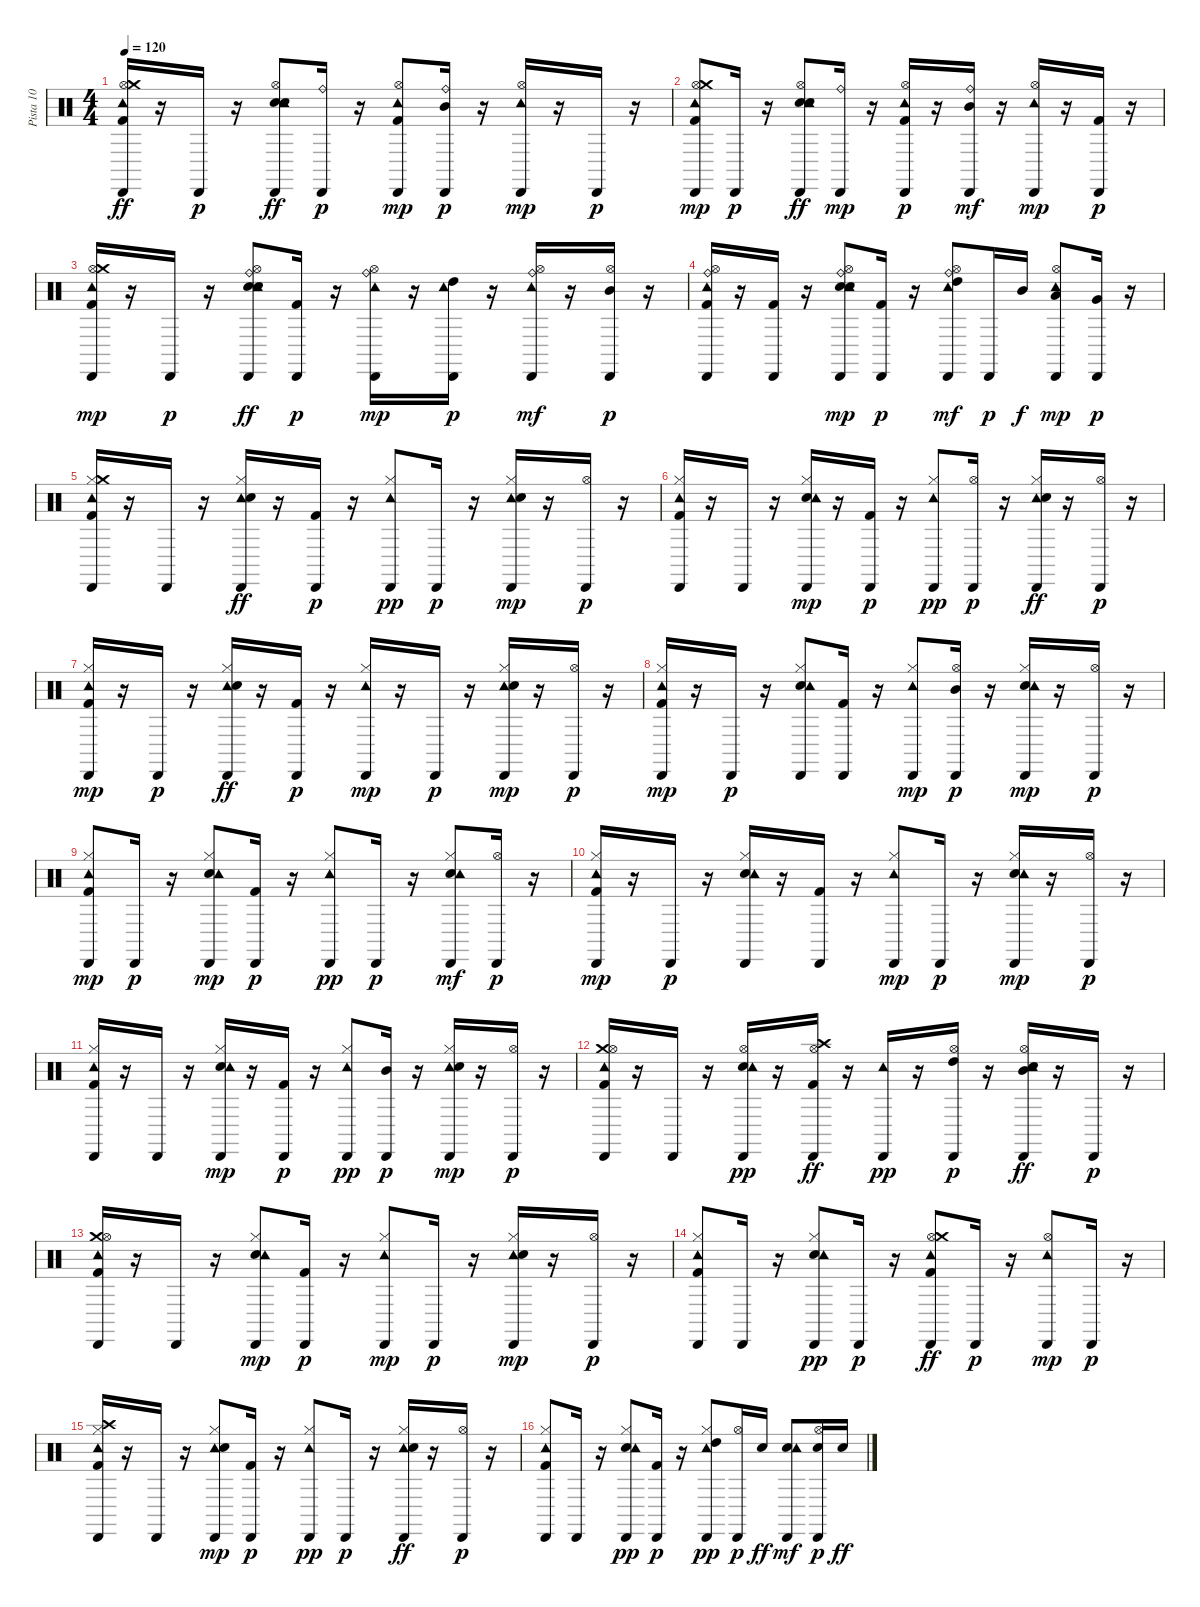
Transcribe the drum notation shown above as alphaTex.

\track ("Pista 10" "Pista 10") {instrument percussion}
\staff {score}
\articulation defaults
\ts (4 4)
\tempo 120
\clef neutral
\ks c
("Tambourine (hit)" "Cabasa (hit)" "Hi-Hat (open)" "Crash medium (hit)" "Kick (hit) 2").16{dy ff} r.16 "Cabasa (hit)".16{dy p} r.16 ("Electric Snare (hit)" "Tambourine (hit)" "Cabasa (hit)" "Electric Snare (hit)" "Hi-Hat (open)").8{dy ff} ("Ride (bell)" "Cabasa (hit)").16{dy p} r.16 ("Kick (hit) 2" "Cabasa (hit)" "Hi-Hat (open)" "Tambourine (hit)").8{dy mp} ("Mid Tom (hit)" "Ride (bell)" "Cabasa (hit)").16{dy p} r.16 ("Hi-Hat (open)" "Tambourine (hit)" "Cabasa (hit)").16{dy mp} r.16 "Cabasa (hit)".16{dy p} r.16 |
("Kick (hit) 2" "Hi-Hat (open)" "Crash medium (hit)" "Cabasa (hit)" "Tambourine (hit)").8{dy mp} "Cabasa (hit)".16{dy p} r.16 ("Electric Snare (hit)" "Hi-Hat (open)" "Tambourine (hit)" "Cabasa (hit)" "Electric Snare (hit)").8{dy ff} ("Cabasa (hit)" "Ride (bell)").16{dy mp} r.16 ("Kick (hit) 2" "Hi-Hat (open)" "Cabasa (hit)" "Tambourine (hit)").16{dy p} r.16 ("Cabasa (hit)" "Mid Tom (hit)" "Ride (bell)").16{dy mf} r.16 ("Hi-Hat (open)" "Cabasa (hit)" "Tambourine (hit)").16{dy mp} r.16 ("Kick (hit) 2" "Cabasa (hit)").16{dy p} r.16 |
("Kick (hit) 2" "Hi-Hat (open)" "Tambourine (hit)" "Crash medium (hit)" "Cabasa (hit)").16{dy mp} r.16 "Cabasa (hit)".16{dy p} r.16 ("Electric Snare (hit)" "Cabasa (hit)" "Hi-Hat (open)" "Ride (bell)" "Tambourine (hit)" "Electric Snare (hit)").8{dy ff} ("Kick (hit) 2" "Cabasa (hit)").16{dy p} r.16 ("Hi-Hat (open)" "Ride (bell)" "Cabasa (hit)" "Tambourine (hit)").16{dy mp} r.16 ("Cabasa (hit)" "High Tom (hit)" "Tambourine (hit)").16{dy p} r.16 ("Cabasa (hit)" "Hi-Hat (open)" "Ride (bell)" "Tambourine (hit)").16{dy mf} r.16 ("Hi-Hat (open)" "Mid Tom (hit)" "Cabasa (hit)").16{dy p} r.16 |
("Ride (bell)" "Cabasa (hit)" "Tambourine (hit)" "Hi-Hat (open)" "Kick (hit) 2").16 r.16 ("Cabasa (hit)" "Kick (hit) 2").16 r.16 ("Electric Snare (hit)" "Electric Snare (hit)" "Tambourine (hit)" "Hi-Hat (open)" "Ride (bell)" "Cabasa (hit)").8{dy mp} ("Cabasa (hit)" "Kick (hit) 2").16{dy p} r.16 ("Tambourine (hit)" "Cabasa (hit)" "High Tom (hit)" "Ride (bell)" "Hi-Hat (open)").8{dy mf} "Cabasa (hit)".16{dy p} "Mid Tom (hit)".16{dy f} ("Hi-Hat (open)" "Tambourine (hit)" "Low Tom (hit)" "Cabasa (hit)").8{dy mp} ("Very Low Tom (hit)" "Cabasa (hit)").16{dy p} r.16 |
("Kick (hit) 2" "Cabasa (hit)" "Hi-Hat (closed)" "Crash medium (hit)" "Tambourine (hit)").16 r.16 "Cabasa (hit)".16 r.16 ("Cabasa (hit)" "Tambourine (hit)" "Electric Snare (hit)" "Hi-Hat (closed)").16{dy ff} r.16 ("Kick (hit) 2" "Cabasa (hit)").16{dy p} r.16 ("Hi-Hat (closed)" "Cabasa (hit)" "Tambourine (hit)").8{dy pp} "Cabasa (hit)".16{dy p} r.16 ("Tambourine (hit)" "Electric Snare (hit)" "Hi-Hat (closed)" "Cabasa (hit)").16{dy mp} r.16 ("Cabasa (hit)" "Hi-Hat (open)").16{dy p} r.16 |
("Cabasa (hit)" "Kick (hit) 2" "Hi-Hat (closed)" "Tambourine (hit)").16 r.16 "Cabasa (hit)".16 r.16 ("Electric Snare (hit)" "Tambourine (hit)" "Hi-Hat (closed)" "Cabasa (hit)").16{dy mp} r.16 ("Cabasa (hit)" "Kick (hit) 2").16{dy p} r.16 ("Hi-Hat (closed)" "Cabasa (hit)" "Tambourine (hit)").8{dy pp} ("Hi-Hat (open)" "Cabasa (hit)").16{dy p} r.16 ("Hi-Hat (closed)" "Cabasa (hit)" "Tambourine (hit)" "Electric Snare (hit)").16{dy ff} r.16 ("Hi-Hat (open)" "Cabasa (hit)").16{dy p} r.16 |
("Tambourine (hit)" "Cabasa (hit)" "Kick (hit) 2" "Hi-Hat (closed)").16{dy mp} r.16 "Cabasa (hit)".16{dy p} r.16 ("Hi-Hat (closed)" "Cabasa (hit)" "Tambourine (hit)" "Electric Snare (hit)").16{dy ff} r.16 ("Kick (hit) 2" "Cabasa (hit)").16{dy p} r.16 ("Tambourine (hit)" "Cabasa (hit)" "Hi-Hat (closed)").16{dy mp} r.16 "Cabasa (hit)".16{dy p} r.16 ("Tambourine (hit)" "Electric Snare (hit)" "Hi-Hat (closed)" "Cabasa (hit)").16{dy mp} r.16 ("Hi-Hat (open)" "Cabasa (hit)").16{dy p} r.16 |
("Hi-Hat (closed)" "Tambourine (hit)" "Cabasa (hit)" "Kick (hit) 2").16{dy mp} r.16 "Cabasa (hit)".16{dy p} r.16 ("Electric Snare (hit)" "Hi-Hat (closed)" "Cabasa (hit)" "Tambourine (hit)").8 ("Cabasa (hit)" "Kick (hit) 2").16 r.16 ("Hi-Hat (closed)" "Tambourine (hit)" "Cabasa (hit)").8{dy mp} ("Hi-Hat (open)" "Mid Tom (hit)" "Cabasa (hit)").16{dy p} r.16 ("Electric Snare (hit)" "Hi-Hat (closed)" "Cabasa (hit)" "Tambourine (hit)").16{dy mp} r.16 ("Hi-Hat (open)" "Cabasa (hit)").16{dy p} r.16 |
("Kick (hit) 2" "Hi-Hat (closed)" "Tambourine (hit)" "Cabasa (hit)").8{dy mp} "Cabasa (hit)".16{dy p} r.16 ("Electric Snare (hit)" "Hi-Hat (closed)" "Tambourine (hit)" "Cabasa (hit)").8{dy mp} ("Kick (hit) 2" "Cabasa (hit)").16{dy p} r.16 ("Hi-Hat (closed)" "Cabasa (hit)" "Tambourine (hit)").8{dy pp} "Cabasa (hit)".16{dy p} r.16 ("Electric Snare (hit)" "Hi-Hat (closed)" "Cabasa (hit)" "Tambourine (hit)").8{dy mf} ("Cabasa (hit)" "Hi-Hat (open)").16{dy p} r.16 |
("Hi-Hat (closed)" "Kick (hit) 2" "Tambourine (hit)" "Cabasa (hit)").16{dy mp} r.16 "Cabasa (hit)".16{dy p} r.16 ("Cabasa (hit)" "Electric Snare (hit)" "Hi-Hat (closed)" "Tambourine (hit)").16 r.16 ("Kick (hit) 2" "Cabasa (hit)").16 r.16 ("Tambourine (hit)" "Hi-Hat (closed)" "Cabasa (hit)").8{dy mp} "Cabasa (hit)".16{dy p} r.16 ("Hi-Hat (closed)" "Electric Snare (hit)" "Tambourine (hit)" "Cabasa (hit)").16{dy mp} r.16 ("Cabasa (hit)" "Hi-Hat (open)").16{dy p} r.16 |
("Kick (hit) 2" "Hi-Hat (closed)" "Cabasa (hit)" "Tambourine (hit)").16 r.16 "Cabasa (hit)".16 r.16 ("Electric Snare (hit)" "Tambourine (hit)" "Hi-Hat (closed)" "Cabasa (hit)").16{dy mp} r.16 ("Cabasa (hit)" "Kick (hit) 2").16{dy p} r.16 ("Cabasa (hit)" "Hi-Hat (closed)" "Tambourine (hit)").8{dy pp} ("Cabasa (hit)" "Mid Tom (hit)").16{dy p} r.16 ("Tambourine (hit)" "Electric Snare (hit)" "Hi-Hat (closed)" "Cabasa (hit)").16{dy mp} r.16 ("Hi-Hat (open)" "Cabasa (hit)").16{dy p} r.16 |
("Crash medium (hit)" "Cabasa (hit)" "Tambourine (hit)" "Kick (hit) 2" "Hi-Hat (open)").16 r.16 "Cabasa (hit)".16 r.16 ("Electric Snare (hit)" "Cabasa (hit)" "Hi-Hat (open)" "Tambourine (hit)").16{dy pp} r.16 ("Kick (hit) 2" "Hi-Hat (open)" "Cabasa (hit)" "Crash high (hit)").16{dy ff} r.16 ("Cabasa (hit)" "Tambourine (hit)").16{dy pp} r.16 ("Hi-Hat (open)" "High Tom (hit)" "Cabasa (hit)").16{dy p} r.16 ("Hi-Hat (open)" "Mid Tom (hit)" "Cabasa (hit)" "Tambourine (hit)" "Electric Snare (hit)").16{dy ff} r.16 "Cabasa (hit)".16{dy p} r.16 |
("Crash medium (hit)" "Cabasa (hit)" "Kick (hit) 2" "Hi-Hat (open)" "Tambourine (hit)").16 r.16 "Cabasa (hit)".16 r.16 ("Electric Snare (hit)" "Hi-Hat (closed)" "Tambourine (hit)" "Cabasa (hit)").8{dy mp} ("Kick (hit) 2" "Cabasa (hit)").16{dy p} r.16 ("Hi-Hat (closed)" "Tambourine (hit)" "Cabasa (hit)").8{dy mp} "Cabasa (hit)".16{dy p} r.16 ("Tambourine (hit)" "Electric Snare (hit)" "Hi-Hat (closed)" "Cabasa (hit)").16{dy mp} r.16 ("Hi-Hat (open)" "Cabasa (hit)").16{dy p} r.16 |
("Hi-Hat (closed)" "Cabasa (hit)" "Kick (hit) 2" "Tambourine (hit)").8 "Cabasa (hit)".16 r.16 ("Electric Snare (hit)" "Hi-Hat (closed)" "Cabasa (hit)" "Tambourine (hit)").8{dy pp} "Cabasa (hit)".16{dy p} r.16 ("Kick (hit) 2" "Hi-Hat (open)" "Cabasa (hit)" "Tambourine (hit)" "Crash medium (hit)").8{dy ff} "Cabasa (hit)".16{dy p} r.16 ("Hi-Hat (open)" "Tambourine (hit)" "Cabasa (hit)").8{dy mp} "Cabasa (hit)".16{dy p} r.16 |
("Crash high (hit)" "Cabasa (hit)" "Tambourine (hit)" "Kick (hit) 2" "Hi-Hat (closed)").16 r.16 "Cabasa (hit)".16 r.16 ("Tambourine (hit)" "Electric Snare (hit)" "Hi-Hat (closed)" "Cabasa (hit)").8{dy mp} ("Kick (hit) 2" "Cabasa (hit)").16{dy p} r.16 ("Cabasa (hit)" "Hi-Hat (closed)" "Tambourine (hit)").8{dy pp} "Cabasa (hit)".16{dy p} r.16 ("Cabasa (hit)" "Tambourine (hit)" "Electric Snare (hit)" "Hi-Hat (closed)").16{dy ff} r.16 ("Hi-Hat (open)" "Cabasa (hit)").16{dy p} r.16 |
("Hi-Hat (closed)" "Cabasa (hit)" "Tambourine (hit)" "Kick (hit) 2").8 "Cabasa (hit)".16 r.16 ("Electric Snare (hit)" "Hi-Hat (closed)" "Cabasa (hit)" "Tambourine (hit)").8{dy pp} ("Cabasa (hit)" "Kick (hit) 2").16{dy p} r.16 ("Hi-Hat (closed)" "High Tom (hit)" "Cabasa (hit)" "Tambourine (hit)").8{dy pp} ("Hi-Hat (open)" "Cabasa (hit)").16{dy p} "Electric Snare (hit)".16{dy ff} ("Electric Snare (hit)" "Cabasa (hit)" "Tambourine (hit)").8{dy mf} ("Electric Snare (hit)" "Hi-Hat (open)" "Cabasa (hit)").16{dy p} "Electric Snare (hit)".16{dy ff}
